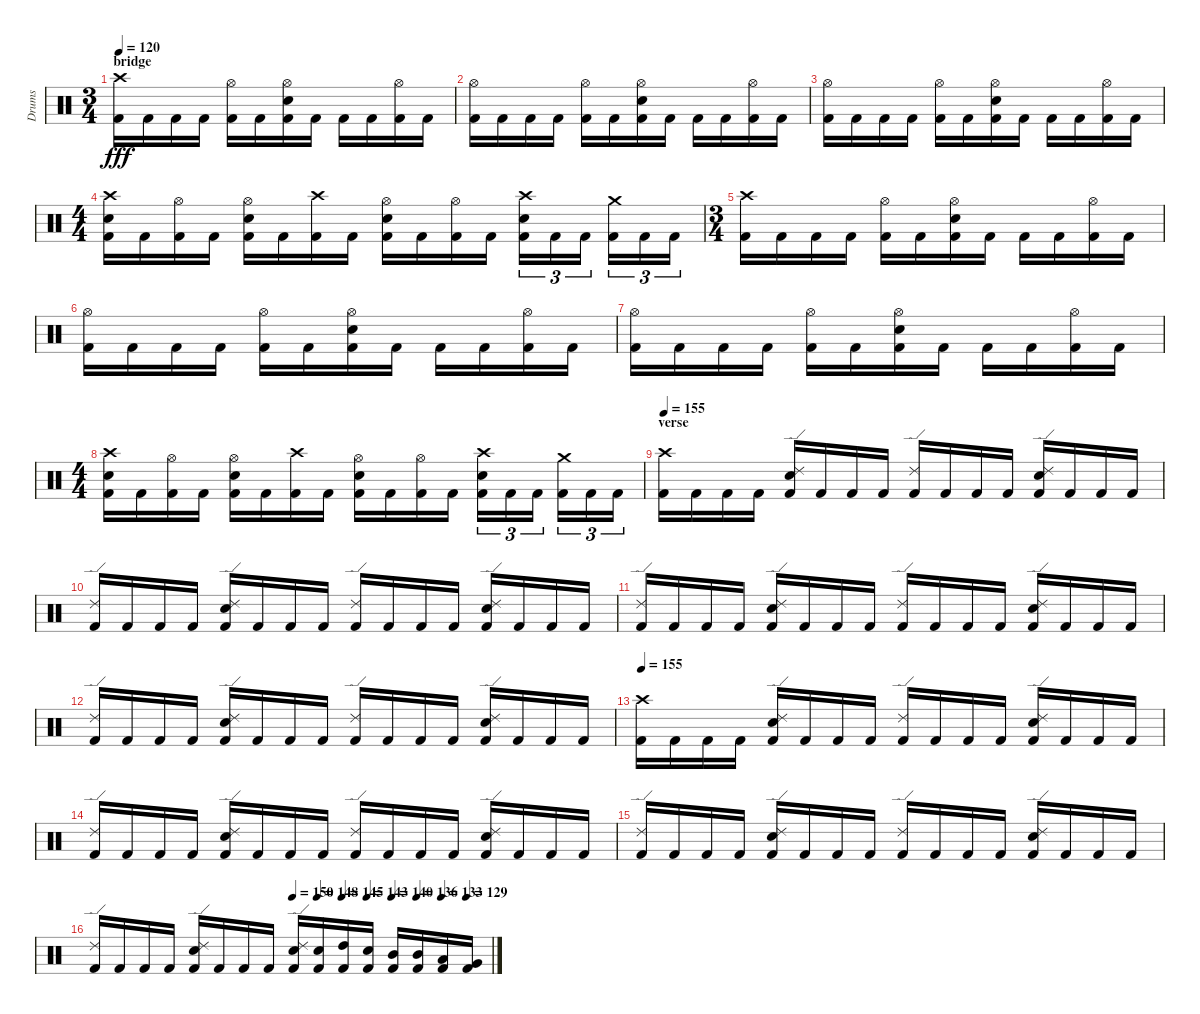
\track ("Drums" "Drums") {instrument percussion}
\staff {score}
\articulation defaults
\ts (3 4)
\section ("" "bridge")
\tempo 120
\clef neutral
\ks c
("Crash high (hit)" "Kick (hit) 2").16{dy fff} "Kick (hit) 2".16 "Kick (hit) 2".16 "Kick (hit) 2".16 ("Hi-Hat (open)" "Kick (hit) 2").16 "Kick (hit) 2".16 ("Hi-Hat (open)" "Snare (hit) 2" "Kick (hit) 2").16 "Kick (hit) 2".16 "Kick (hit) 2".16 "Kick (hit) 2".16 ("Hi-Hat (open)" "Kick (hit) 2").16 "Kick (hit) 2".16 |
("Hi-Hat (open)" "Kick (hit) 2").16 "Kick (hit) 2".16 "Kick (hit) 2".16 "Kick (hit) 2".16 ("Hi-Hat (open)" "Kick (hit) 2").16 "Kick (hit) 2".16 ("Hi-Hat (open)" "Snare (hit) 2" "Kick (hit) 2").16 "Kick (hit) 2".16 "Kick (hit) 2".16 "Kick (hit) 2".16 ("Hi-Hat (open)" "Kick (hit) 2").16 "Kick (hit) 2".16 |
("Hi-Hat (open)" "Kick (hit) 2").16 "Kick (hit) 2".16 "Kick (hit) 2".16 "Kick (hit) 2".16 ("Hi-Hat (open)" "Kick (hit) 2").16 "Kick (hit) 2".16 ("Hi-Hat (open)" "Snare (hit) 2" "Kick (hit) 2").16 "Kick (hit) 2".16 "Kick (hit) 2".16 "Kick (hit) 2".16 ("Hi-Hat (open)" "Kick (hit) 2").16 "Kick (hit) 2".16 |
\ts (4 4)
("Crash high (hit)" "Snare (hit) 2" "Kick (hit) 2").16 "Kick (hit) 2".16 ("Hi-Hat (open)" "Kick (hit) 2").16 "Kick (hit) 2".16 ("Hi-Hat (open)" "Snare (hit) 2" "Kick (hit) 2").16 "Kick (hit) 2".16 ("Crash high (hit)" "Kick (hit) 2").16 "Kick (hit) 2".16 ("Hi-Hat (open)" "Snare (hit) 2" "Kick (hit) 2").16 "Kick (hit) 2".16 ("Hi-Hat (open)" "Kick (hit) 2").16 "Kick (hit) 2".16 ("Crash high (hit)" "Snare (hit) 2" "Kick (hit) 2").16{tu (3 2)} "Kick (hit) 2".16{tu (3 2)} "Kick (hit) 2".16{tu (3 2)} ("Crash medium (hit)" "Kick (hit) 2").16{tu (3 2)} "Kick (hit) 2".16{tu (3 2)} "Kick (hit) 2".16{tu (3 2)} |
\ts (3 4)
("Crash high (hit)" "Kick (hit) 2").16 "Kick (hit) 2".16 "Kick (hit) 2".16 "Kick (hit) 2".16 ("Hi-Hat (open)" "Kick (hit) 2").16 "Kick (hit) 2".16 ("Hi-Hat (open)" "Snare (hit) 2" "Kick (hit) 2").16 "Kick (hit) 2".16 "Kick (hit) 2".16 "Kick (hit) 2".16 ("Hi-Hat (open)" "Kick (hit) 2").16 "Kick (hit) 2".16 |
("Hi-Hat (open)" "Kick (hit) 2").16 "Kick (hit) 2".16 "Kick (hit) 2".16 "Kick (hit) 2".16 ("Hi-Hat (open)" "Kick (hit) 2").16 "Kick (hit) 2".16 ("Hi-Hat (open)" "Snare (hit) 2" "Kick (hit) 2").16 "Kick (hit) 2".16 "Kick (hit) 2".16 "Kick (hit) 2".16 ("Hi-Hat (open)" "Kick (hit) 2").16 "Kick (hit) 2".16 |
("Hi-Hat (open)" "Kick (hit) 2").16 "Kick (hit) 2".16 "Kick (hit) 2".16 "Kick (hit) 2".16 ("Hi-Hat (open)" "Kick (hit) 2").16 "Kick (hit) 2".16 ("Hi-Hat (open)" "Snare (hit) 2" "Kick (hit) 2").16 "Kick (hit) 2".16 "Kick (hit) 2".16 "Kick (hit) 2".16 ("Hi-Hat (open)" "Kick (hit) 2").16 "Kick (hit) 2".16 |
\ts (4 4)
("Crash high (hit)" "Snare (hit) 2" "Kick (hit) 2").16 "Kick (hit) 2".16 ("Hi-Hat (open)" "Kick (hit) 2").16 "Kick (hit) 2".16 ("Hi-Hat (open)" "Snare (hit) 2" "Kick (hit) 2").16 "Kick (hit) 2".16 ("Crash high (hit)" "Kick (hit) 2").16 "Kick (hit) 2".16 ("Hi-Hat (open)" "Snare (hit) 2" "Kick (hit) 2").16 "Kick (hit) 2".16 ("Hi-Hat (open)" "Kick (hit) 2").16 "Kick (hit) 2".16 ("Crash high (hit)" "Snare (hit) 2" "Kick (hit) 2").16{tu (3 2)} "Kick (hit) 2".16{tu (3 2)} "Kick (hit) 2".16{tu (3 2)} ("Crash medium (hit)" "Kick (hit) 2").16{tu (3 2)} "Kick (hit) 2".16{tu (3 2)} "Kick (hit) 2".16{tu (3 2)} |
\section ("" "verse")
\tempo 155
("Crash high (hit)" "Kick (hit) 2").16 "Kick (hit) 2".16 "Kick (hit) 2".16 "Kick (hit) 2".16 ("Ride (edge) 2" "Snare (hit) 2" "Kick (hit) 2").16 "Kick (hit) 2".16 "Kick (hit) 2".16 "Kick (hit) 2".16 ("Ride (edge) 2" "Kick (hit) 2").16 "Kick (hit) 2".16 "Kick (hit) 2".16 "Kick (hit) 2".16 ("Ride (edge) 2" "Snare (hit) 2" "Kick (hit) 2").16 "Kick (hit) 2".16 "Kick (hit) 2".16 "Kick (hit) 2".16 |
("Ride (edge) 2" "Kick (hit) 2").16 "Kick (hit) 2".16 "Kick (hit) 2".16 "Kick (hit) 2".16 ("Ride (edge) 2" "Snare (hit) 2" "Kick (hit) 2").16 "Kick (hit) 2".16 "Kick (hit) 2".16 "Kick (hit) 2".16 ("Ride (edge) 2" "Kick (hit) 2").16 "Kick (hit) 2".16 "Kick (hit) 2".16 "Kick (hit) 2".16 ("Ride (edge) 2" "Snare (hit) 2" "Kick (hit) 2").16 "Kick (hit) 2".16 "Kick (hit) 2".16 "Kick (hit) 2".16 |
("Ride (edge) 2" "Kick (hit) 2").16 "Kick (hit) 2".16 "Kick (hit) 2".16 "Kick (hit) 2".16 ("Ride (edge) 2" "Snare (hit) 2" "Kick (hit) 2").16 "Kick (hit) 2".16 "Kick (hit) 2".16 "Kick (hit) 2".16 ("Ride (edge) 2" "Kick (hit) 2").16 "Kick (hit) 2".16 "Kick (hit) 2".16 "Kick (hit) 2".16 ("Ride (edge) 2" "Snare (hit) 2" "Kick (hit) 2").16 "Kick (hit) 2".16 "Kick (hit) 2".16 "Kick (hit) 2".16 |
("Ride (edge) 2" "Kick (hit) 2").16 "Kick (hit) 2".16 "Kick (hit) 2".16 "Kick (hit) 2".16 ("Ride (edge) 2" "Snare (hit) 2" "Kick (hit) 2").16 "Kick (hit) 2".16 "Kick (hit) 2".16 "Kick (hit) 2".16 ("Ride (edge) 2" "Kick (hit) 2").16 "Kick (hit) 2".16 "Kick (hit) 2".16 "Kick (hit) 2".16 ("Ride (edge) 2" "Snare (hit) 2" "Kick (hit) 2").16 "Kick (hit) 2".16 "Kick (hit) 2".16 "Kick (hit) 2".16 |
\tempo 155
("Crash high (hit)" "Kick (hit) 2").16 "Kick (hit) 2".16 "Kick (hit) 2".16 "Kick (hit) 2".16 ("Ride (edge) 2" "Snare (hit) 2" "Kick (hit) 2").16 "Kick (hit) 2".16 "Kick (hit) 2".16 "Kick (hit) 2".16 ("Ride (edge) 2" "Kick (hit) 2").16 "Kick (hit) 2".16 "Kick (hit) 2".16 "Kick (hit) 2".16 ("Ride (edge) 2" "Snare (hit) 2" "Kick (hit) 2").16 "Kick (hit) 2".16 "Kick (hit) 2".16 "Kick (hit) 2".16 |
("Ride (edge) 2" "Kick (hit) 2").16 "Kick (hit) 2".16 "Kick (hit) 2".16 "Kick (hit) 2".16 ("Ride (edge) 2" "Snare (hit) 2" "Kick (hit) 2").16 "Kick (hit) 2".16 "Kick (hit) 2".16 "Kick (hit) 2".16 ("Ride (edge) 2" "Kick (hit) 2").16 "Kick (hit) 2".16 "Kick (hit) 2".16 "Kick (hit) 2".16 ("Ride (edge) 2" "Snare (hit) 2" "Kick (hit) 2").16 "Kick (hit) 2".16 "Kick (hit) 2".16 "Kick (hit) 2".16 |
("Ride (edge) 2" "Kick (hit) 2").16 "Kick (hit) 2".16 "Kick (hit) 2".16 "Kick (hit) 2".16 ("Ride (edge) 2" "Snare (hit) 2" "Kick (hit) 2").16 "Kick (hit) 2".16 "Kick (hit) 2".16 "Kick (hit) 2".16 ("Ride (edge) 2" "Kick (hit) 2").16 "Kick (hit) 2".16 "Kick (hit) 2".16 "Kick (hit) 2".16 ("Ride (edge) 2" "Snare (hit) 2" "Kick (hit) 2").16 "Kick (hit) 2".16 "Kick (hit) 2".16 "Kick (hit) 2".16 |
\tempo (150 0.5)
\tempo (148 0.5625)
\tempo (145 0.625)
\tempo (143 0.6875)
\tempo (140 0.75)
\tempo (136 0.8125)
\tempo (133 0.875)
\tempo (129 0.9375)
("Ride (edge) 2" "Kick (hit) 2").16 "Kick (hit) 2".16 "Kick (hit) 2".16 "Kick (hit) 2".16 ("Ride (edge) 2" "Snare (hit) 2" "Kick (hit) 2").16 "Kick (hit) 2".16 "Kick (hit) 2".16 "Kick (hit) 2".16 ("Ride (edge) 2" "Snare (hit) 2" "Kick (hit) 2").16 ("Snare (hit) 2" "Kick (hit) 2").16 ("High Tom (hit)" "Kick (hit) 2").16 ("Snare (hit) 2" "Kick (hit) 2").16 ("Mid Tom (hit)" "Kick (hit) 2").16 ("Mid Tom (hit)" "Kick (hit) 2").16 ("Low Tom (hit)" "Kick (hit) 2").16 ("Very Low Tom (hit)" "Kick (hit) 2").16
